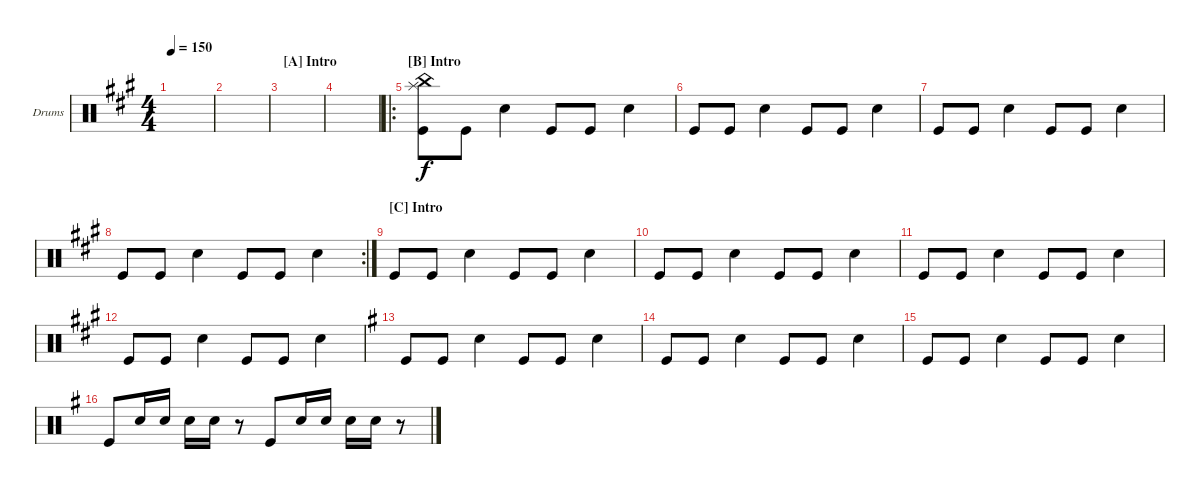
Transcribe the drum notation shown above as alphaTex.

\defaultSystemsLayout 4
\bracketExtendMode groupsimilarinstruments
\firstSystemTrackNameOrientation horizontal
\otherSystemsTrackNameOrientation horizontal
\track ("Drumkit" "Drums") {instrument percussion}
\staff {score}
\articulation defaults
\ts (4 4)
\tempo 150
\clef neutral
\ks a
|
|
\section ("A" "Intro")
|
|
\ro
\section ("B" "Intro")
("Kick (hit)" "China (hit)" "Splash (hit)").8 "Kick (hit)".8 "Snare (hit) 2".4 "Kick (hit)".8 "Kick (hit)".8 "Snare (hit) 2".4 |
"Kick (hit)".8 "Kick (hit)".8 "Snare (hit) 2".4 "Kick (hit)".8 "Kick (hit)".8 "Snare (hit) 2".4 |
"Kick (hit)".8 "Kick (hit)".8 "Snare (hit) 2".4 "Kick (hit)".8 "Kick (hit)".8 "Snare (hit) 2".4 |
\rc 2 "Kick (hit)".8 "Kick (hit)".8 "Snare (hit) 2".4 "Kick (hit)".8 "Kick (hit)".8 "Snare (hit) 2".4
|
\section ("C" "Intro")
"Kick (hit)".8 "Kick (hit)".8 "Snare (hit) 2".4 "Kick (hit)".8 "Kick (hit)".8 "Snare (hit) 2".4 |
"Kick (hit)".8 "Kick (hit)".8 "Snare (hit) 2".4 "Kick (hit)".8 "Kick (hit)".8 "Snare (hit) 2".4 |
"Kick (hit)".8 "Kick (hit)".8 "Snare (hit) 2".4 "Kick (hit)".8 "Kick (hit)".8 "Snare (hit) 2".4 |
"Kick (hit)".8 "Kick (hit)".8 "Snare (hit) 2".4 "Kick (hit)".8 "Kick (hit)".8 "Snare (hit) 2".4 |
\ks g "Kick (hit)".8 "Kick (hit)".8 "Snare (hit) 2".4 "Kick (hit)".8 "Kick (hit)".8 "Snare (hit) 2".4
|
"Kick (hit)".8 "Kick (hit)".8 "Snare (hit) 2".4 "Kick (hit)".8 "Kick (hit)".8 "Snare (hit) 2".4 |
"Kick (hit)".8 "Kick (hit)".8 "Snare (hit) 2".4 "Kick (hit)".8 "Kick (hit)".8 "Snare (hit) 2".4 |
"Kick (hit)".8 "Snare (hit) 2".16 "Snare (hit) 2".16 "Snare (hit) 2".16 "Snare (hit) 2".16 r.8 "Kick (hit)".8 "Snare (hit) 2".16 "Snare (hit) 2".16 "Snare (hit) 2".16 "Snare (hit) 2".16 r.8
